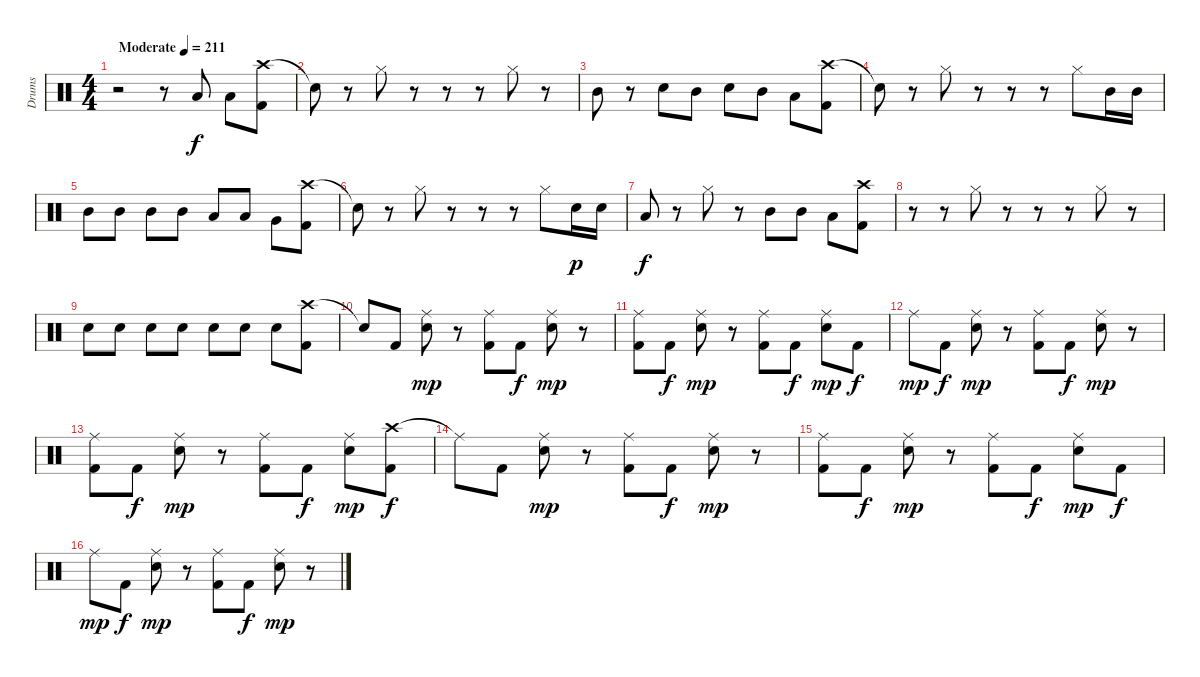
\track ("Drums" "Drums") {instrument percussion}
\staff {score}
\articulation defaults
\ts (4 4)
\tempo (211 "Moderate")
\clef neutral
\ks c
r.2{dy f} r.8 "Low Tom (hit)".8 "Low Tom (hit)".8 ("Crash high (hit)" "Kick (hit) 2").8 |
"Snare (hit)"{t}.8 r.8 "Hi-Hat (closed)".8 r.8 r.8 r.8 "Hi-Hat (closed)".8 r.8 |
"Mid Tom (hit)".8 r.8 "Snare (hit) 2".8 "Mid Tom (hit)".8 "Snare (hit) 2".8 "Mid Tom (hit)".8 "Low Tom (hit)".8 ("Crash high (hit)" "Kick (hit) 2").8 |
"Snare (hit)"{t}.8 r.8 "Hi-Hat (closed)".8 r.8 r.8 r.8 "Hi-Hat (closed)".8 "Mid Tom (hit)".16 "Mid Tom (hit)".16 |
"Mid Tom (hit)".8 "Mid Tom (hit)".8 "Mid Tom (hit)".8 "Mid Tom (hit)".8 "Low Tom (hit)".8 "Low Tom (hit)".8 "Very Low Tom (hit)".8 ("Crash high (hit)" "Kick (hit) 2").8 |
"Snare (hit)"{t}.8 r.8 "Hi-Hat (closed)".8 r.8 r.8 r.8 "Hi-Hat (closed)".8 "Snare (hit) 2".16{dy p} "Snare (hit) 2".16 |
"Low Floor Tom (hit)".8{dy f} r.8 "Hi-Hat (closed)".8 r.8 "Mid Tom (hit)".8 "Mid Tom (hit)".8 "Low Tom (hit)".8 ("Crash high (hit)" "Kick (hit) 2").8 |
r.8 r.8 "Hi-Hat (closed)".8 r.8 r.8 r.8 "Hi-Hat (closed)".8 r.8 |
"Snare (hit) 2".8 "Snare (hit) 2".8 "Snare (hit) 2".8 "Snare (hit) 2".8 "Snare (hit) 2".8 "Snare (hit) 2".8 "Snare (hit) 2".8 ("Crash high (hit)" "Kick (hit) 2").8 |
"Snare (hit)"{t}.8 "Kick (hit) 2".8 ("Ride (middle)" "Snare (hit) 2").8{dy mp} r.8 ("Ride (middle)" "Kick (hit) 2").8 "Kick (hit) 2".8{dy f} ("Ride (middle)" "Snare (hit) 2").8{dy mp} r.8 |
("Ride (middle)" "Kick (hit) 2").8 "Kick (hit) 2".8{dy f} ("Ride (middle)" "Snare (hit) 2").8{dy mp} r.8 ("Ride (middle)" "Kick (hit) 2").8 "Kick (hit) 2".8{dy f} ("Ride (middle)" "Snare (hit) 2").8{dy mp} "Kick (hit) 2".8{dy f} |
"Ride (middle)".8{dy mp} "Kick (hit) 2".8{dy f} ("Ride (middle)" "Snare (hit) 2").8{dy mp} r.8 ("Ride (middle)" "Kick (hit) 2").8 "Kick (hit) 2".8{dy f} ("Ride (middle)" "Snare (hit) 2").8{dy mp} r.8 |
("Ride (middle)" "Kick (hit) 2").8 "Kick (hit) 2".8{dy f} ("Ride (middle)" "Snare (hit) 2").8{dy mp} r.8 ("Ride (middle)" "Kick (hit) 2").8 "Kick (hit) 2".8{dy f} ("Ride (middle)" "Snare (hit) 2").8{dy mp} ("Crash high (hit)" "Kick (hit) 2").8{dy f} |
"Ride (middle)"{t}.8 "Kick (hit) 2".8 ("Ride (middle)" "Snare (hit) 2").8{dy mp} r.8 ("Ride (middle)" "Kick (hit) 2").8 "Kick (hit) 2".8{dy f} ("Ride (middle)" "Snare (hit) 2").8{dy mp} r.8 |
("Ride (middle)" "Kick (hit) 2").8 "Kick (hit) 2".8{dy f} ("Ride (middle)" "Snare (hit) 2").8{dy mp} r.8 ("Ride (middle)" "Kick (hit) 2").8 "Kick (hit) 2".8{dy f} ("Ride (middle)" "Snare (hit) 2").8{dy mp} "Kick (hit) 2".8{dy f} |
"Ride (middle)".8{dy mp} "Kick (hit) 2".8{dy f} ("Ride (middle)" "Snare (hit) 2").8{dy mp} r.8 ("Ride (middle)" "Kick (hit) 2").8 "Kick (hit) 2".8{dy f} ("Ride (middle)" "Snare (hit) 2").8{dy mp} r.8
